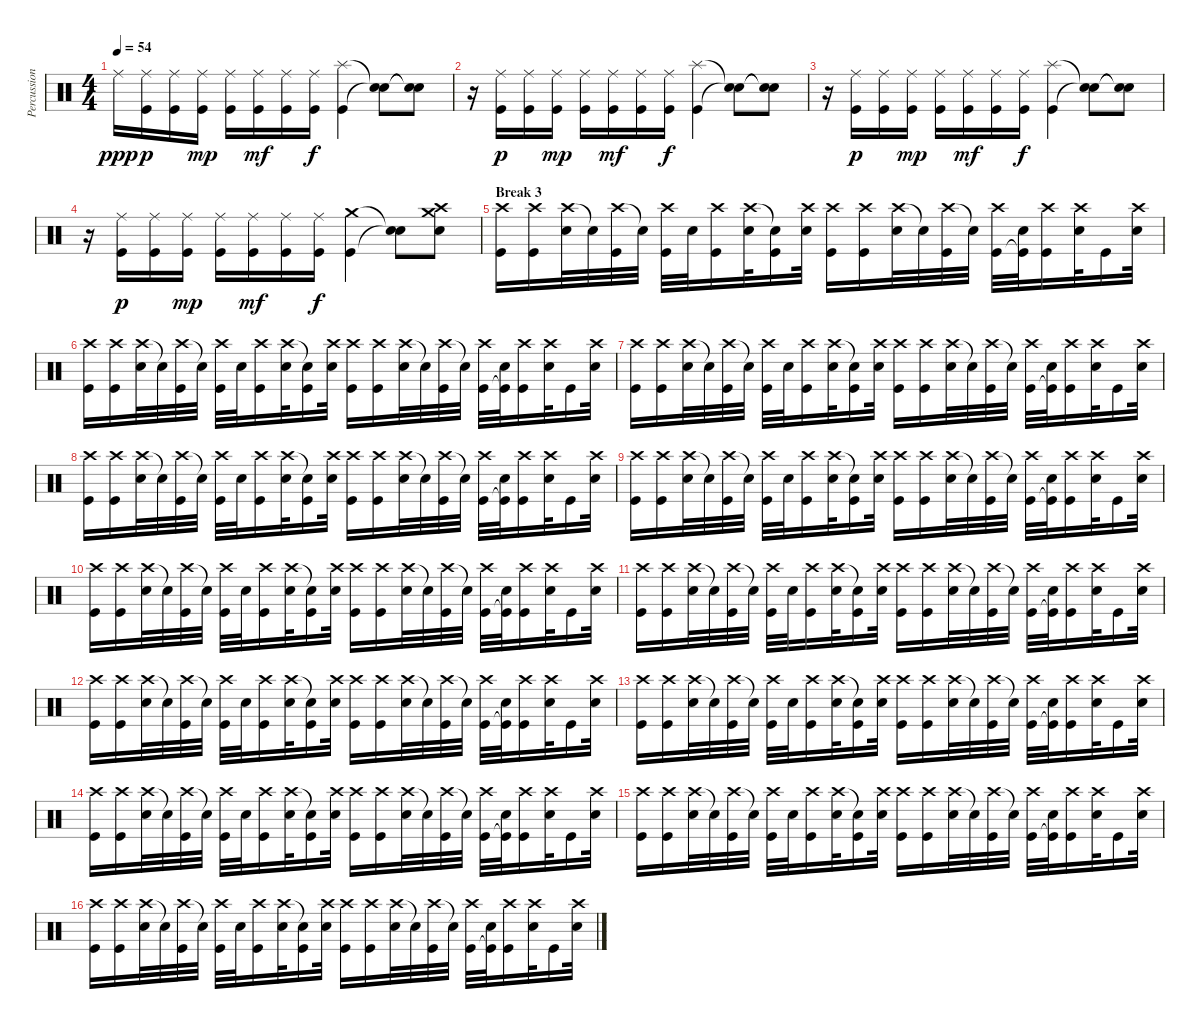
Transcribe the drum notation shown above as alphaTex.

\track ("Percussions" "Percussion") {instrument percussion}
\staff {score}
\articulation defaults
\ts (4 4)
\tempo 54
\clef neutral
\ks c "Ride (middle)".16{dy ppp}
("Ride (middle)" "Kick (hit)").16{dy p} ("Ride (middle)" "Kick (hit)").16 ("Ride (middle)" "Kick (hit)").16{dy mp} ("Ride (middle)" "Kick (hit)").16 ("Ride (middle)" "Kick (hit)").16{dy mf} ("Ride (middle)" "Kick (hit)").16 ("Ride (middle)" "Kick (hit)").16{dy f} ("Splash (hit)" "Kick (hit)").4 ("Snare (hit)"{t} "Snare (hit)"{t}).8 ("Snare (hit)"{t} "Snare (hit)"{t}).8 |
r.16 ("Ride (middle)" "Kick (hit)").16{dy p} ("Ride (middle)" "Kick (hit)").16 ("Ride (middle)" "Kick (hit)").16{dy mp} ("Ride (middle)" "Kick (hit)").16 ("Ride (middle)" "Kick (hit)").16{dy mf} ("Ride (middle)" "Kick (hit)").16 ("Ride (middle)" "Kick (hit)").16{dy f} ("Splash (hit)" "Kick (hit)").4 ("Snare (hit)"{t} "Snare (hit)"{t}).8 ("Snare (hit)"{t} "Snare (hit)"{t}).8 |
r.16 ("Ride (middle)" "Kick (hit)").16{dy p} ("Ride (middle)" "Kick (hit)").16 ("Ride (middle)" "Kick (hit)").16{dy mp} ("Ride (middle)" "Kick (hit)").16 ("Ride (middle)" "Kick (hit)").16{dy mf} ("Ride (middle)" "Kick (hit)").16 ("Ride (middle)" "Kick (hit)").16{dy f} ("Splash (hit)" "Kick (hit)").4 ("Snare (hit)"{t} "Snare (hit)"{t}).8 ("Snare (hit)"{t} "Snare (hit)"{t}).8 |
r.16 ("Ride (middle)" "Kick (hit)").16{dy p} ("Ride (middle)" "Kick (hit)").16 ("Ride (middle)" "Kick (hit)").16{dy mp} ("Ride (middle)" "Kick (hit)").16 ("Ride (middle)" "Kick (hit)").16{dy mf} ("Ride (middle)" "Kick (hit)").16 ("Ride (middle)" "Kick (hit)").16{dy f} ("Crash medium (hit)" "Kick (hit)").4 ("Snare (hit)"{t} "Snare (hit)"{t}).8 ("Crash high (hit)" "Crash medium (hit)" "Snare (hit)").8 |
\section ("" "Break 3")
("Crash high (hit)" "Kick (hit)").16 ("Crash high (hit)" "Kick (hit)").16 ("Crash high (hit)" "Electric Snare (hit)").32 "Snare (hit)"{t}.32 ("Crash high (hit)" "Kick (hit)").32 "Snare (hit)"{t}.32 ("Crash high (hit)" "Kick (hit)").32 "Electric Snare (hit)".32 ("Crash high (hit)" "Kick (hit)").16 ("Crash high (hit)" "Electric Snare (hit)").32 ("Snare (hit)"{t} "Kick (hit)").16 ("Crash high (hit)" "Electric Snare (hit)").32 ("Crash high (hit)" "Kick (hit)").16 ("Crash high (hit)" "Kick (hit)").16 ("Crash high (hit)" "Electric Snare (hit)").32 "Snare (hit)"{t}.32 ("Crash high (hit)" "Kick (hit)").32 "Snare (hit)"{t}.32 ("Crash high (hit)" "Kick (hit)").32 ("Electric Snare (hit)" "Kick (hit)"{t}).32 ("Crash high (hit)" "Kick (hit)").16 ("Crash high (hit)" "Electric Snare (hit)").32 "Kick (hit)".16 ("Crash high (hit)" "Electric Snare (hit)").32 |
("Crash high (hit)" "Kick (hit)").16 ("Crash high (hit)" "Kick (hit)").16 ("Crash high (hit)" "Electric Snare (hit)").32 "Snare (hit)"{t}.32 ("Crash high (hit)" "Kick (hit)").32 "Snare (hit)"{t}.32 ("Crash high (hit)" "Kick (hit)").32 "Electric Snare (hit)".32 ("Crash high (hit)" "Kick (hit)").16 ("Crash high (hit)" "Electric Snare (hit)").32 ("Snare (hit)"{t} "Kick (hit)").16 ("Crash high (hit)" "Electric Snare (hit)").32 ("Crash high (hit)" "Kick (hit)").16 ("Crash high (hit)" "Kick (hit)").16 ("Crash high (hit)" "Electric Snare (hit)").32 "Snare (hit)"{t}.32 ("Crash high (hit)" "Kick (hit)").32 "Snare (hit)"{t}.32 ("Crash high (hit)" "Kick (hit)").32 ("Electric Snare (hit)" "Kick (hit)"{t}).32 ("Crash high (hit)" "Kick (hit)").16 ("Crash high (hit)" "Electric Snare (hit)").32 "Kick (hit)".16 ("Crash high (hit)" "Electric Snare (hit)").32 |
("Crash high (hit)" "Kick (hit)").16 ("Crash high (hit)" "Kick (hit)").16 ("Crash high (hit)" "Electric Snare (hit)").32 "Snare (hit)"{t}.32 ("Crash high (hit)" "Kick (hit)").32 "Snare (hit)"{t}.32 ("Crash high (hit)" "Kick (hit)").32 "Electric Snare (hit)".32 ("Crash high (hit)" "Kick (hit)").16 ("Crash high (hit)" "Electric Snare (hit)").32 ("Snare (hit)"{t} "Kick (hit)").16 ("Crash high (hit)" "Electric Snare (hit)").32 ("Crash high (hit)" "Kick (hit)").16 ("Crash high (hit)" "Kick (hit)").16 ("Crash high (hit)" "Electric Snare (hit)").32 "Snare (hit)"{t}.32 ("Crash high (hit)" "Kick (hit)").32 "Snare (hit)"{t}.32 ("Crash high (hit)" "Kick (hit)").32 ("Electric Snare (hit)" "Kick (hit)"{t}).32 ("Crash high (hit)" "Kick (hit)").16 ("Crash high (hit)" "Electric Snare (hit)").32 "Kick (hit)".16 ("Crash high (hit)" "Electric Snare (hit)").32 |
("Crash high (hit)" "Kick (hit)").16 ("Crash high (hit)" "Kick (hit)").16 ("Crash high (hit)" "Electric Snare (hit)").32 "Snare (hit)"{t}.32 ("Crash high (hit)" "Kick (hit)").32 "Snare (hit)"{t}.32 ("Crash high (hit)" "Kick (hit)").32 "Electric Snare (hit)".32 ("Crash high (hit)" "Kick (hit)").16 ("Crash high (hit)" "Electric Snare (hit)").32 ("Snare (hit)"{t} "Kick (hit)").16 ("Crash high (hit)" "Electric Snare (hit)").32 ("Crash high (hit)" "Kick (hit)").16 ("Crash high (hit)" "Kick (hit)").16 ("Crash high (hit)" "Electric Snare (hit)").32 "Snare (hit)"{t}.32 ("Crash high (hit)" "Kick (hit)").32 "Snare (hit)"{t}.32 ("Crash high (hit)" "Kick (hit)").32 ("Electric Snare (hit)" "Kick (hit)"{t}).32 ("Crash high (hit)" "Kick (hit)").16 ("Crash high (hit)" "Electric Snare (hit)").32 "Kick (hit)".16 ("Crash high (hit)" "Electric Snare (hit)").32 |
("Crash high (hit)" "Kick (hit)").16 ("Crash high (hit)" "Kick (hit)").16 ("Crash high (hit)" "Electric Snare (hit)").32 "Snare (hit)"{t}.32 ("Crash high (hit)" "Kick (hit)").32 "Snare (hit)"{t}.32 ("Crash high (hit)" "Kick (hit)").32 "Electric Snare (hit)".32 ("Crash high (hit)" "Kick (hit)").16 ("Crash high (hit)" "Electric Snare (hit)").32 ("Snare (hit)"{t} "Kick (hit)").16 ("Crash high (hit)" "Electric Snare (hit)").32 ("Crash high (hit)" "Kick (hit)").16 ("Crash high (hit)" "Kick (hit)").16 ("Crash high (hit)" "Electric Snare (hit)").32 "Snare (hit)"{t}.32 ("Crash high (hit)" "Kick (hit)").32 "Snare (hit)"{t}.32 ("Crash high (hit)" "Kick (hit)").32 ("Electric Snare (hit)" "Kick (hit)"{t}).32 ("Crash high (hit)" "Kick (hit)").16 ("Crash high (hit)" "Electric Snare (hit)").32 "Kick (hit)".16 ("Crash high (hit)" "Electric Snare (hit)").32 |
("Crash high (hit)" "Kick (hit)").16 ("Crash high (hit)" "Kick (hit)").16 ("Crash high (hit)" "Electric Snare (hit)").32 "Snare (hit)"{t}.32 ("Crash high (hit)" "Kick (hit)").32 "Snare (hit)"{t}.32 ("Crash high (hit)" "Kick (hit)").32 "Electric Snare (hit)".32 ("Crash high (hit)" "Kick (hit)").16 ("Crash high (hit)" "Electric Snare (hit)").32 ("Snare (hit)"{t} "Kick (hit)").16 ("Crash high (hit)" "Electric Snare (hit)").32 ("Crash high (hit)" "Kick (hit)").16 ("Crash high (hit)" "Kick (hit)").16 ("Crash high (hit)" "Electric Snare (hit)").32 "Snare (hit)"{t}.32 ("Crash high (hit)" "Kick (hit)").32 "Snare (hit)"{t}.32 ("Crash high (hit)" "Kick (hit)").32 ("Electric Snare (hit)" "Kick (hit)"{t}).32 ("Crash high (hit)" "Kick (hit)").16 ("Crash high (hit)" "Electric Snare (hit)").32 "Kick (hit)".16 ("Crash high (hit)" "Electric Snare (hit)").32 |
("Crash high (hit)" "Kick (hit)").16 ("Crash high (hit)" "Kick (hit)").16 ("Crash high (hit)" "Electric Snare (hit)").32 "Snare (hit)"{t}.32 ("Crash high (hit)" "Kick (hit)").32 "Snare (hit)"{t}.32 ("Crash high (hit)" "Kick (hit)").32 "Electric Snare (hit)".32 ("Crash high (hit)" "Kick (hit)").16 ("Crash high (hit)" "Electric Snare (hit)").32 ("Snare (hit)"{t} "Kick (hit)").16 ("Crash high (hit)" "Electric Snare (hit)").32 ("Crash high (hit)" "Kick (hit)").16 ("Crash high (hit)" "Kick (hit)").16 ("Crash high (hit)" "Electric Snare (hit)").32 "Snare (hit)"{t}.32 ("Crash high (hit)" "Kick (hit)").32 "Snare (hit)"{t}.32 ("Crash high (hit)" "Kick (hit)").32 ("Electric Snare (hit)" "Kick (hit)"{t}).32 ("Crash high (hit)" "Kick (hit)").16 ("Crash high (hit)" "Electric Snare (hit)").32 "Kick (hit)".16 ("Crash high (hit)" "Electric Snare (hit)").32 |
("Crash high (hit)" "Kick (hit)").16 ("Crash high (hit)" "Kick (hit)").16 ("Crash high (hit)" "Electric Snare (hit)").32 "Snare (hit)"{t}.32 ("Crash high (hit)" "Kick (hit)").32 "Snare (hit)"{t}.32 ("Crash high (hit)" "Kick (hit)").32 "Electric Snare (hit)".32 ("Crash high (hit)" "Kick (hit)").16 ("Crash high (hit)" "Electric Snare (hit)").32 ("Snare (hit)"{t} "Kick (hit)").16 ("Crash high (hit)" "Electric Snare (hit)").32 ("Crash high (hit)" "Kick (hit)").16 ("Crash high (hit)" "Kick (hit)").16 ("Crash high (hit)" "Electric Snare (hit)").32 "Snare (hit)"{t}.32 ("Crash high (hit)" "Kick (hit)").32 "Snare (hit)"{t}.32 ("Crash high (hit)" "Kick (hit)").32 ("Electric Snare (hit)" "Kick (hit)"{t}).32 ("Crash high (hit)" "Kick (hit)").16 ("Crash high (hit)" "Electric Snare (hit)").32 "Kick (hit)".16 ("Crash high (hit)" "Electric Snare (hit)").32 |
("Crash high (hit)" "Kick (hit)").16 ("Crash high (hit)" "Kick (hit)").16 ("Crash high (hit)" "Electric Snare (hit)").32 "Snare (hit)"{t}.32 ("Crash high (hit)" "Kick (hit)").32 "Snare (hit)"{t}.32 ("Crash high (hit)" "Kick (hit)").32 "Electric Snare (hit)".32 ("Crash high (hit)" "Kick (hit)").16 ("Crash high (hit)" "Electric Snare (hit)").32 ("Snare (hit)"{t} "Kick (hit)").16 ("Crash high (hit)" "Electric Snare (hit)").32 ("Crash high (hit)" "Kick (hit)").16 ("Crash high (hit)" "Kick (hit)").16 ("Crash high (hit)" "Electric Snare (hit)").32 "Snare (hit)"{t}.32 ("Crash high (hit)" "Kick (hit)").32 "Snare (hit)"{t}.32 ("Crash high (hit)" "Kick (hit)").32 ("Electric Snare (hit)" "Kick (hit)"{t}).32 ("Crash high (hit)" "Kick (hit)").16 ("Crash high (hit)" "Electric Snare (hit)").32 "Kick (hit)".16 ("Crash high (hit)" "Electric Snare (hit)").32 |
("Crash high (hit)" "Kick (hit)").16 ("Crash high (hit)" "Kick (hit)").16 ("Crash high (hit)" "Electric Snare (hit)").32 "Snare (hit)"{t}.32 ("Crash high (hit)" "Kick (hit)").32 "Snare (hit)"{t}.32 ("Crash high (hit)" "Kick (hit)").32 "Electric Snare (hit)".32 ("Crash high (hit)" "Kick (hit)").16 ("Crash high (hit)" "Electric Snare (hit)").32 ("Snare (hit)"{t} "Kick (hit)").16 ("Crash high (hit)" "Electric Snare (hit)").32 ("Crash high (hit)" "Kick (hit)").16 ("Crash high (hit)" "Kick (hit)").16 ("Crash high (hit)" "Electric Snare (hit)").32 "Snare (hit)"{t}.32 ("Crash high (hit)" "Kick (hit)").32 "Snare (hit)"{t}.32 ("Crash high (hit)" "Kick (hit)").32 ("Electric Snare (hit)" "Kick (hit)"{t}).32 ("Crash high (hit)" "Kick (hit)").16 ("Crash high (hit)" "Electric Snare (hit)").32 "Kick (hit)".16 ("Crash high (hit)" "Electric Snare (hit)").32 |
("Crash high (hit)" "Kick (hit)").16 ("Crash high (hit)" "Kick (hit)").16 ("Crash high (hit)" "Electric Snare (hit)").32 "Snare (hit)"{t}.32 ("Crash high (hit)" "Kick (hit)").32 "Snare (hit)"{t}.32 ("Crash high (hit)" "Kick (hit)").32 "Electric Snare (hit)".32 ("Crash high (hit)" "Kick (hit)").16 ("Crash high (hit)" "Electric Snare (hit)").32 ("Snare (hit)"{t} "Kick (hit)").16 ("Crash high (hit)" "Electric Snare (hit)").32 ("Crash high (hit)" "Kick (hit)").16 ("Crash high (hit)" "Kick (hit)").16 ("Crash high (hit)" "Electric Snare (hit)").32 "Snare (hit)"{t}.32 ("Crash high (hit)" "Kick (hit)").32 "Snare (hit)"{t}.32 ("Crash high (hit)" "Kick (hit)").32 ("Electric Snare (hit)" "Kick (hit)"{t}).32 ("Crash high (hit)" "Kick (hit)").16 ("Crash high (hit)" "Electric Snare (hit)").32 "Kick (hit)".16 ("Crash high (hit)" "Electric Snare (hit)").32 |
("Crash high (hit)" "Kick (hit)").16 ("Crash high (hit)" "Kick (hit)").16 ("Crash high (hit)" "Electric Snare (hit)").32 "Snare (hit)"{t}.32 ("Crash high (hit)" "Kick (hit)").32 "Snare (hit)"{t}.32 ("Crash high (hit)" "Kick (hit)").32 "Electric Snare (hit)".32 ("Crash high (hit)" "Kick (hit)").16 ("Crash high (hit)" "Electric Snare (hit)").32 ("Snare (hit)"{t} "Kick (hit)").16 ("Crash high (hit)" "Electric Snare (hit)").32 ("Crash high (hit)" "Kick (hit)").16 ("Crash high (hit)" "Kick (hit)").16 ("Crash high (hit)" "Electric Snare (hit)").32 "Snare (hit)"{t}.32 ("Crash high (hit)" "Kick (hit)").32 "Snare (hit)"{t}.32 ("Crash high (hit)" "Kick (hit)").32 ("Electric Snare (hit)" "Kick (hit)"{t}).32 ("Crash high (hit)" "Kick (hit)").16 ("Crash high (hit)" "Electric Snare (hit)").32 "Kick (hit)".16 ("Crash high (hit)" "Electric Snare (hit)").32
